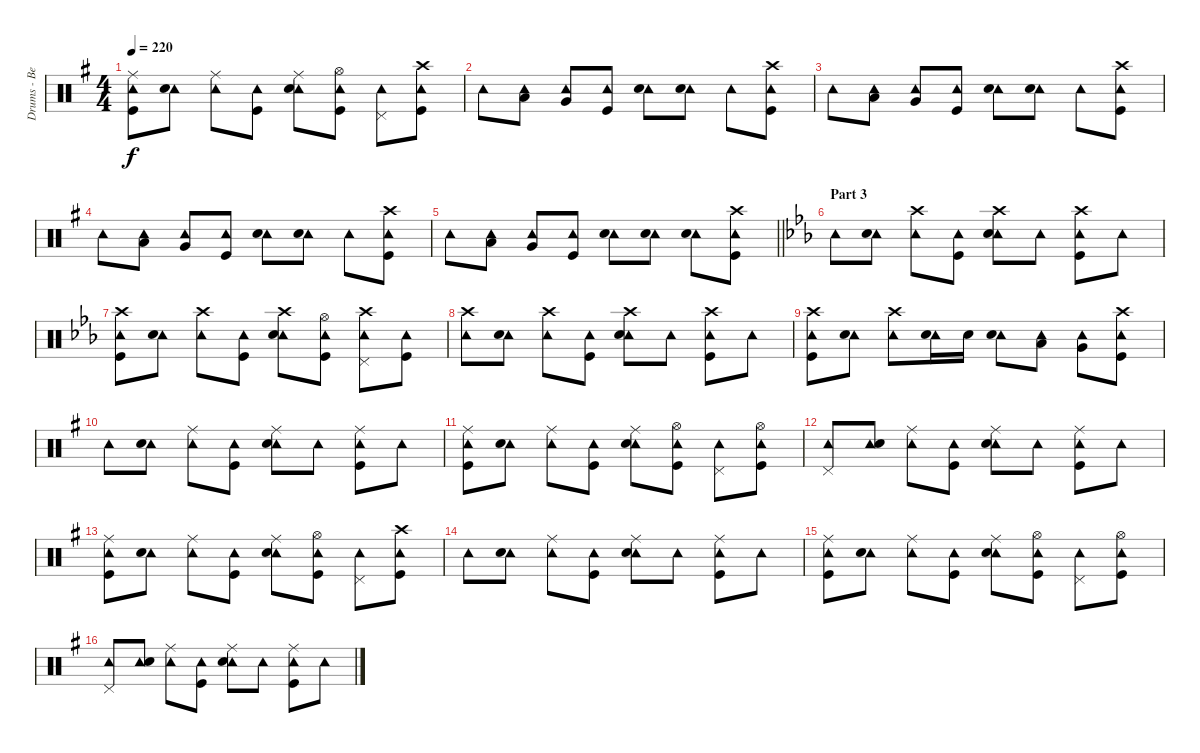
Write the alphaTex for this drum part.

\track ("Drums - Ben Johnston" "Drums - Be") {instrument percussion}
\staff {score}
\articulation defaults
\ts (4 4)
\tempo 220
\clef neutral
\ks eminor
("Ride (middle)" "Tambourine (hit)" "Kick (hit)").8{dy f} ("Tambourine (hit)" "Snare (hit) 2").8 ("Ride (middle)" "Tambourine (hit)").8 ("Tambourine (hit)" "Kick (hit)").8 ("Ride (middle)" "Tambourine (hit)" "Snare (hit) 2").8 ("Hi-Hat (open)" "Tambourine (hit)" "Kick (hit)").8 ("Tambourine (hit)" "Pedal Hi-Hat (hit)").8 ("Crash high (hit)" "Tambourine (hit)" "Kick (hit)").8 |
"Tambourine (hit)".8 ("Tambourine (hit)" "Low Tom (hit)").8 ("Tambourine (hit)" "Very Low Tom (hit)").8 ("Tambourine (hit)" "Kick (hit)").8 ("Tambourine (hit)" "Snare (hit) 2").8 ("Tambourine (hit)" "Snare (hit) 2").8 "Tambourine (hit)".8 ("Crash high (hit)" "Tambourine (hit)" "Kick (hit)").8 |
"Tambourine (hit)".8 ("Tambourine (hit)" "Low Tom (hit)").8 ("Tambourine (hit)" "Very Low Tom (hit)").8 ("Tambourine (hit)" "Kick (hit)").8 ("Tambourine (hit)" "Snare (hit) 2").8 ("Tambourine (hit)" "Snare (hit) 2").8 "Tambourine (hit)".8 ("Crash high (hit)" "Tambourine (hit)" "Kick (hit)").8 |
"Tambourine (hit)".8 ("Tambourine (hit)" "Low Tom (hit)").8 ("Tambourine (hit)" "Very Low Tom (hit)").8 ("Tambourine (hit)" "Kick (hit)").8 ("Tambourine (hit)" "Snare (hit) 2").8 ("Tambourine (hit)" "Snare (hit) 2").8 "Tambourine (hit)".8 ("Crash high (hit)" "Tambourine (hit)" "Kick (hit)").8 |
\barLineRight lightlight "Tambourine (hit)".8
("Tambourine (hit)" "Low Tom (hit)").8 ("Tambourine (hit)" "Very Low Tom (hit)").8 ("Tambourine (hit)" "Kick (hit)").8 ("Tambourine (hit)" "Snare (hit) 2").8 ("Tambourine (hit)" "Snare (hit) 2").8 ("Tambourine (hit)" "Snare (hit) 2").8 ("Crash high (hit)" "Tambourine (hit)" "Kick (hit)").8 |
\section ("" "Part 3")
\ks eb "Tambourine (hit)".8
("Tambourine (hit)" "Snare (hit) 2").8 ("Crash high (hit)" "Tambourine (hit)").8 ("Tambourine (hit)" "Kick (hit)").8 ("Crash high (hit)" "Tambourine (hit)" "Snare (hit) 2").8 "Tambourine (hit)".8 ("Crash high (hit)" "Tambourine (hit)" "Kick (hit)").8 "Tambourine (hit)".8 |
("Crash high (hit)" "Tambourine (hit)" "Kick (hit)").8 ("Tambourine (hit)" "Snare (hit) 2").8 ("Crash high (hit)" "Tambourine (hit)").8 ("Tambourine (hit)" "Kick (hit)").8 ("Crash high (hit)" "Tambourine (hit)" "Snare (hit) 2").8 ("Hi-Hat (open)" "Tambourine (hit)" "Kick (hit)").8 ("Crash high (hit)" "Tambourine (hit)" "Pedal Hi-Hat (hit)").8 ("Tambourine (hit)" "Kick (hit)").8 |
("Crash high (hit)" "Tambourine (hit)").8 ("Tambourine (hit)" "Snare (hit) 2").8 ("Crash high (hit)" "Tambourine (hit)").8 ("Tambourine (hit)" "Kick (hit)").8 ("Crash high (hit)" "Tambourine (hit)" "Snare (hit) 2").8 "Tambourine (hit)".8 ("Crash high (hit)" "Tambourine (hit)" "Kick (hit)").8 "Tambourine (hit)".8 |
("Crash high (hit)" "Tambourine (hit)" "Kick (hit)").8 ("Tambourine (hit)" "Snare (hit) 2").8 ("Crash high (hit)" "Tambourine (hit)").8 ("Tambourine (hit)" "Snare (hit) 2").16 "Snare (hit) 2".16 ("Tambourine (hit)" "Snare (hit) 2").8 ("Tambourine (hit)" "Low Tom (hit)").8 ("Tambourine (hit)" "Very Low Tom (hit)").8 ("Crash high (hit)" "Tambourine (hit)" "Kick (hit)").8 |
\ks eminor "Tambourine (hit)".8
("Tambourine (hit)" "Snare (hit) 2").8 ("Ride (middle)" "Tambourine (hit)").8 ("Tambourine (hit)" "Kick (hit)").8 ("Ride (middle)" "Tambourine (hit)" "Snare (hit) 2").8 "Tambourine (hit)".8 ("Ride (middle)" "Tambourine (hit)" "Kick (hit)").8 "Tambourine (hit)".8 |
("Ride (middle)" "Tambourine (hit)" "Kick (hit)").8 ("Tambourine (hit)" "Snare (hit) 2").8 ("Ride (middle)" "Tambourine (hit)").8 ("Tambourine (hit)" "Kick (hit)").8 ("Ride (middle)" "Tambourine (hit)" "Snare (hit) 2").8 ("Hi-Hat (open)" "Tambourine (hit)" "Kick (hit)").8 ("Tambourine (hit)" "Pedal Hi-Hat (hit)").8 ("Hi-Hat (open)" "Tambourine (hit)" "Kick (hit)").8 |
("Tambourine (hit)" "Pedal Hi-Hat (hit)").8 ("Tambourine (hit)" "Snare (hit) 2").8 ("Ride (middle)" "Tambourine (hit)").8 ("Tambourine (hit)" "Kick (hit)").8 ("Ride (middle)" "Tambourine (hit)" "Snare (hit) 2").8 "Tambourine (hit)".8 ("Ride (middle)" "Tambourine (hit)" "Kick (hit)").8 "Tambourine (hit)".8 |
("Ride (middle)" "Tambourine (hit)" "Kick (hit)").8 ("Tambourine (hit)" "Snare (hit) 2").8 ("Ride (middle)" "Tambourine (hit)").8 ("Tambourine (hit)" "Kick (hit)").8 ("Ride (middle)" "Tambourine (hit)" "Snare (hit) 2").8 ("Hi-Hat (open)" "Tambourine (hit)" "Kick (hit)").8 ("Tambourine (hit)" "Pedal Hi-Hat (hit)").8 ("Crash high (hit)" "Tambourine (hit)" "Kick (hit)").8 |
"Tambourine (hit)".8 ("Tambourine (hit)" "Snare (hit) 2").8 ("Ride (middle)" "Tambourine (hit)").8 ("Tambourine (hit)" "Kick (hit)").8 ("Ride (middle)" "Tambourine (hit)" "Snare (hit) 2").8 "Tambourine (hit)".8 ("Ride (middle)" "Tambourine (hit)" "Kick (hit)").8 "Tambourine (hit)".8 |
("Ride (middle)" "Tambourine (hit)" "Kick (hit)").8 ("Tambourine (hit)" "Snare (hit) 2").8 ("Ride (middle)" "Tambourine (hit)").8 ("Tambourine (hit)" "Kick (hit)").8 ("Ride (middle)" "Tambourine (hit)" "Snare (hit) 2").8 ("Hi-Hat (open)" "Tambourine (hit)" "Kick (hit)").8 ("Tambourine (hit)" "Pedal Hi-Hat (hit)").8 ("Hi-Hat (open)" "Tambourine (hit)" "Kick (hit)").8 |
("Tambourine (hit)" "Pedal Hi-Hat (hit)").8 ("Tambourine (hit)" "Snare (hit) 2").8 ("Ride (middle)" "Tambourine (hit)").8 ("Tambourine (hit)" "Kick (hit)").8 ("Ride (middle)" "Tambourine (hit)" "Snare (hit) 2").8 "Tambourine (hit)".8 ("Ride (middle)" "Tambourine (hit)" "Kick (hit)").8 "Tambourine (hit)".8
